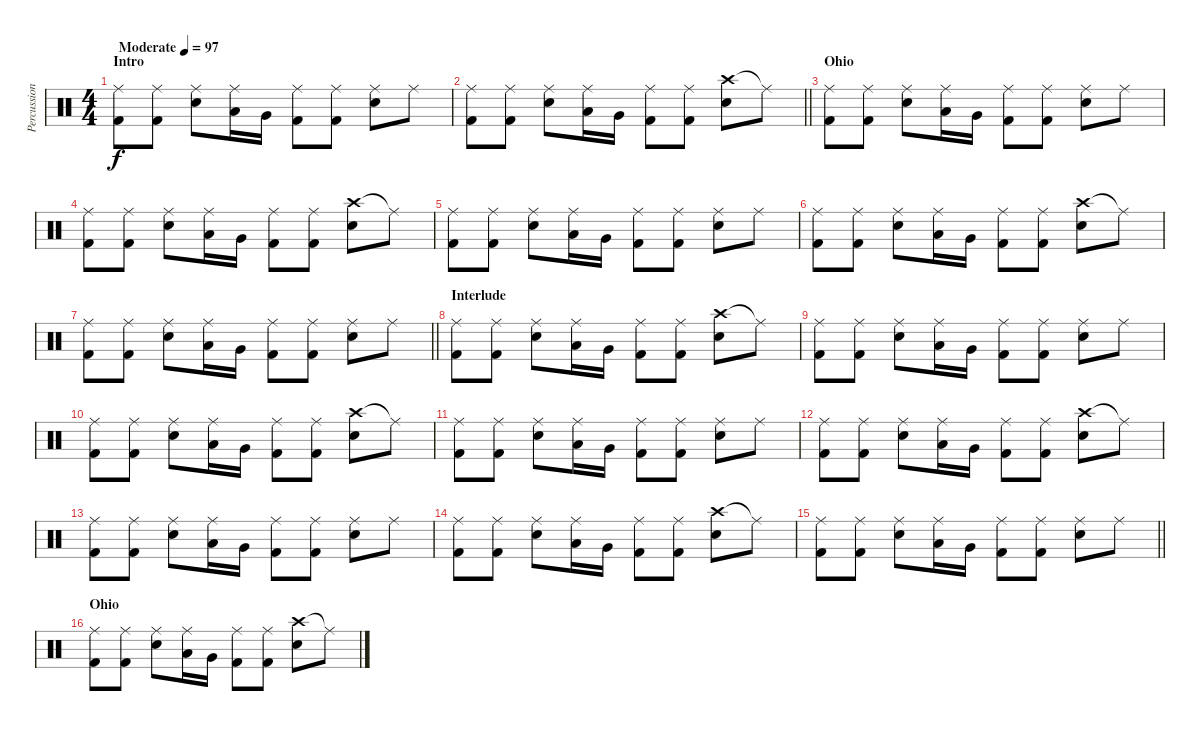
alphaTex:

\track ("Percussion" "Percussion") {instrument percussion}
\staff {score}
\articulation defaults
\ts (4 4)
\section ("" "Intro")
\tempo (97 "Moderate")
\clef neutral
\ks c
("Ride (middle)" "Kick (hit) 2").8{dy f} ("Ride (middle)" "Kick (hit) 2").8 ("Ride (middle)" "Snare (hit) 2").8 ("Ride (middle)" "Low Floor Tom (hit)").16 "Very Low Tom (hit)".16 ("Ride (middle)" "Kick (hit) 2").8 ("Ride (middle)" "Kick (hit) 2").8 ("Ride (middle)" "Snare (hit) 2").8 "Ride (middle)".8 |
\barLineRight lightlight
("Ride (middle)" "Kick (hit) 2").8 ("Ride (middle)" "Kick (hit) 2").8 ("Ride (middle)" "Snare (hit) 2").8 ("Ride (middle)" "Low Floor Tom (hit)").16 "Very Low Tom (hit)".16 ("Ride (middle)" "Kick (hit) 2").8 ("Ride (middle)" "Kick (hit) 2").8 ("Crash high (hit)" "Snare (hit) 2").8 "Ride (middle)"{t}.8 |
\section ("" "Ohio")
("Ride (middle)" "Kick (hit) 2").8 ("Ride (middle)" "Kick (hit) 2").8 ("Ride (middle)" "Snare (hit) 2").8 ("Ride (middle)" "Low Floor Tom (hit)").16 "Very Low Tom (hit)".16 ("Ride (middle)" "Kick (hit) 2").8 ("Ride (middle)" "Kick (hit) 2").8 ("Ride (middle)" "Snare (hit) 2").8 "Ride (middle)".8 |
("Ride (middle)" "Kick (hit) 2").8 ("Ride (middle)" "Kick (hit) 2").8 ("Ride (middle)" "Snare (hit) 2").8 ("Ride (middle)" "Low Floor Tom (hit)").16 "Very Low Tom (hit)".16 ("Ride (middle)" "Kick (hit) 2").8 ("Ride (middle)" "Kick (hit) 2").8 ("Crash high (hit)" "Snare (hit) 2").8 "Ride (middle)"{t}.8 |
("Ride (middle)" "Kick (hit) 2").8 ("Ride (middle)" "Kick (hit) 2").8 ("Ride (middle)" "Snare (hit) 2").8 ("Ride (middle)" "Low Floor Tom (hit)").16 "Very Low Tom (hit)".16 ("Ride (middle)" "Kick (hit) 2").8 ("Ride (middle)" "Kick (hit) 2").8 ("Ride (middle)" "Snare (hit) 2").8 "Ride (middle)".8 |
("Ride (middle)" "Kick (hit) 2").8 ("Ride (middle)" "Kick (hit) 2").8 ("Ride (middle)" "Snare (hit) 2").8 ("Ride (middle)" "Low Floor Tom (hit)").16 "Very Low Tom (hit)".16 ("Ride (middle)" "Kick (hit) 2").8 ("Ride (middle)" "Kick (hit) 2").8 ("Crash high (hit)" "Snare (hit) 2").8 "Ride (middle)"{t}.8 |
\barLineRight lightlight
("Ride (middle)" "Kick (hit) 2").8 ("Ride (middle)" "Kick (hit) 2").8 ("Ride (middle)" "Snare (hit) 2").8 ("Ride (middle)" "Low Floor Tom (hit)").16 "Very Low Tom (hit)".16 ("Ride (middle)" "Kick (hit) 2").8 ("Ride (middle)" "Kick (hit) 2").8 ("Ride (middle)" "Snare (hit) 2").8 "Ride (middle)".8 |
\section ("" "Interlude")
("Ride (middle)" "Kick (hit) 2").8 ("Ride (middle)" "Kick (hit) 2").8 ("Ride (middle)" "Snare (hit) 2").8 ("Ride (middle)" "Low Floor Tom (hit)").16 "Very Low Tom (hit)".16 ("Ride (middle)" "Kick (hit) 2").8 ("Ride (middle)" "Kick (hit) 2").8 ("Crash high (hit)" "Snare (hit) 2").8 "Ride (middle)"{t}.8 |
("Ride (middle)" "Kick (hit) 2").8 ("Ride (middle)" "Kick (hit) 2").8 ("Ride (middle)" "Snare (hit) 2").8 ("Ride (middle)" "Low Floor Tom (hit)").16 "Very Low Tom (hit)".16 ("Ride (middle)" "Kick (hit) 2").8 ("Ride (middle)" "Kick (hit) 2").8 ("Ride (middle)" "Snare (hit) 2").8 "Ride (middle)".8 |
("Ride (middle)" "Kick (hit) 2").8 ("Ride (middle)" "Kick (hit) 2").8 ("Ride (middle)" "Snare (hit) 2").8 ("Ride (middle)" "Low Floor Tom (hit)").16 "Very Low Tom (hit)".16 ("Ride (middle)" "Kick (hit) 2").8 ("Ride (middle)" "Kick (hit) 2").8 ("Crash high (hit)" "Snare (hit) 2").8 "Ride (middle)"{t}.8 |
("Ride (middle)" "Kick (hit) 2").8 ("Ride (middle)" "Kick (hit) 2").8 ("Ride (middle)" "Snare (hit) 2").8 ("Ride (middle)" "Low Floor Tom (hit)").16 "Very Low Tom (hit)".16 ("Ride (middle)" "Kick (hit) 2").8 ("Ride (middle)" "Kick (hit) 2").8 ("Ride (middle)" "Snare (hit) 2").8 "Ride (middle)".8 |
("Ride (middle)" "Kick (hit) 2").8 ("Ride (middle)" "Kick (hit) 2").8 ("Ride (middle)" "Snare (hit) 2").8 ("Ride (middle)" "Low Floor Tom (hit)").16 "Very Low Tom (hit)".16 ("Ride (middle)" "Kick (hit) 2").8 ("Ride (middle)" "Kick (hit) 2").8 ("Crash high (hit)" "Snare (hit) 2").8 "Ride (middle)"{t}.8 |
("Ride (middle)" "Kick (hit) 2").8 ("Ride (middle)" "Kick (hit) 2").8 ("Ride (middle)" "Snare (hit) 2").8 ("Ride (middle)" "Low Floor Tom (hit)").16 "Very Low Tom (hit)".16 ("Ride (middle)" "Kick (hit) 2").8 ("Ride (middle)" "Kick (hit) 2").8 ("Ride (middle)" "Snare (hit) 2").8 "Ride (middle)".8 |
("Ride (middle)" "Kick (hit) 2").8 ("Ride (middle)" "Kick (hit) 2").8 ("Ride (middle)" "Snare (hit) 2").8 ("Ride (middle)" "Low Floor Tom (hit)").16 "Very Low Tom (hit)".16 ("Ride (middle)" "Kick (hit) 2").8 ("Ride (middle)" "Kick (hit) 2").8 ("Crash high (hit)" "Snare (hit) 2").8 "Ride (middle)"{t}.8 |
\barLineRight lightlight
("Ride (middle)" "Kick (hit) 2").8 ("Ride (middle)" "Kick (hit) 2").8 ("Ride (middle)" "Snare (hit) 2").8 ("Ride (middle)" "Low Floor Tom (hit)").16 "Very Low Tom (hit)".16 ("Ride (middle)" "Kick (hit) 2").8 ("Ride (middle)" "Kick (hit) 2").8 ("Ride (middle)" "Snare (hit) 2").8 "Ride (middle)".8 |
\section ("" "Ohio")
("Ride (middle)" "Kick (hit) 2").8 ("Ride (middle)" "Kick (hit) 2").8 ("Ride (middle)" "Snare (hit) 2").8 ("Ride (middle)" "Low Floor Tom (hit)").16 "Very Low Tom (hit)".16 ("Ride (middle)" "Kick (hit) 2").8 ("Ride (middle)" "Kick (hit) 2").8 ("Crash high (hit)" "Snare (hit) 2").8 "Ride (middle)"{t}.8
